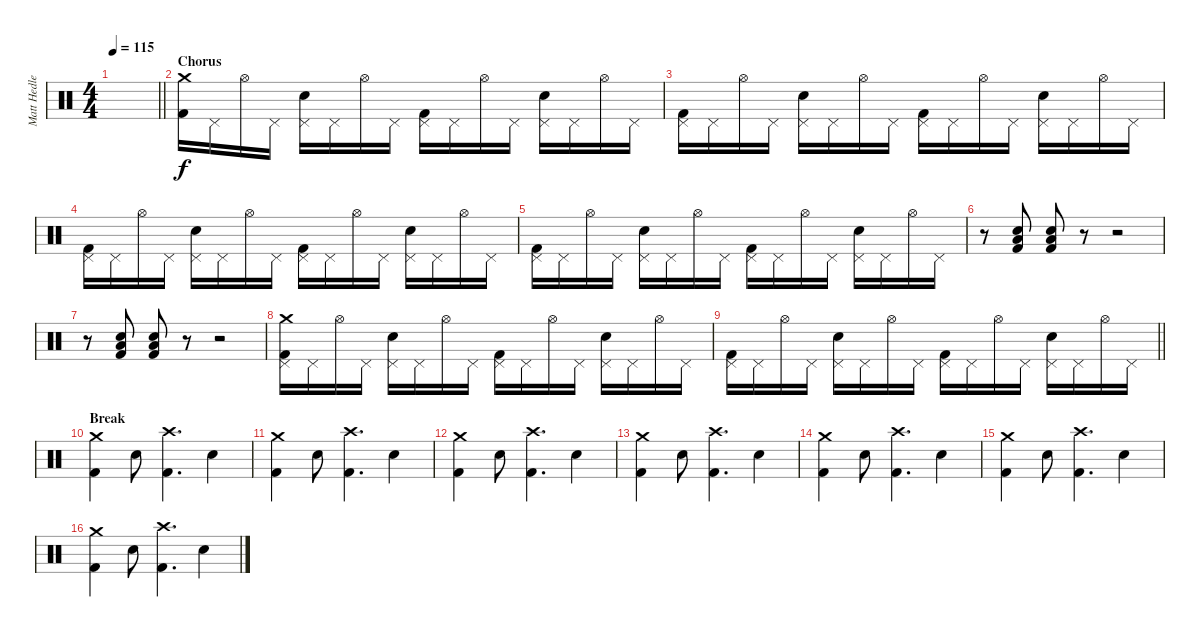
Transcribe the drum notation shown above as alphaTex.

\track ("Matt Hedlers" "Matt Hedle") {instrument percussion}
\staff {score}
\articulation defaults
\ts (4 4)
\tempo 115
\clef neutral
\barLineRight lightlight
\ks c
|
\section ("" "Chorus")
("Crash medium (hit)" "Kick (hit) 2").16 "Pedal Hi-Hat (hit)".16 "Hi-Hat (open)".16 "Pedal Hi-Hat (hit)".16 ("Pedal Hi-Hat (hit)" "Snare (hit) 2").16 "Pedal Hi-Hat (hit)".16 "Hi-Hat (open)".16 "Pedal Hi-Hat (hit)".16 ("Pedal Hi-Hat (hit)" "Kick (hit) 2").16 "Pedal Hi-Hat (hit)".16 "Hi-Hat (open)".16 "Pedal Hi-Hat (hit)".16 ("Pedal Hi-Hat (hit)" "Snare (hit) 2").16 "Pedal Hi-Hat (hit)".16 "Hi-Hat (open)".16 "Pedal Hi-Hat (hit)".16 |
("Pedal Hi-Hat (hit)" "Kick (hit) 2").16 "Pedal Hi-Hat (hit)".16 "Hi-Hat (open)".16 "Pedal Hi-Hat (hit)".16 ("Pedal Hi-Hat (hit)" "Snare (hit) 2").16 "Pedal Hi-Hat (hit)".16 "Hi-Hat (open)".16 "Pedal Hi-Hat (hit)".16 ("Pedal Hi-Hat (hit)" "Kick (hit) 2").16 "Pedal Hi-Hat (hit)".16 "Hi-Hat (open)".16 "Pedal Hi-Hat (hit)".16 ("Pedal Hi-Hat (hit)" "Snare (hit) 2").16 "Pedal Hi-Hat (hit)".16 "Hi-Hat (open)".16 "Pedal Hi-Hat (hit)".16 |
("Pedal Hi-Hat (hit)" "Kick (hit) 2").16 "Pedal Hi-Hat (hit)".16 "Hi-Hat (open)".16 "Pedal Hi-Hat (hit)".16 ("Pedal Hi-Hat (hit)" "Snare (hit) 2").16 "Pedal Hi-Hat (hit)".16 "Hi-Hat (open)".16 "Pedal Hi-Hat (hit)".16 ("Pedal Hi-Hat (hit)" "Kick (hit) 2").16 "Pedal Hi-Hat (hit)".16 "Hi-Hat (open)".16 "Pedal Hi-Hat (hit)".16 ("Pedal Hi-Hat (hit)" "Snare (hit) 2").16 "Pedal Hi-Hat (hit)".16 "Hi-Hat (open)".16 "Pedal Hi-Hat (hit)".16 |
("Pedal Hi-Hat (hit)" "Kick (hit) 2").16 "Pedal Hi-Hat (hit)".16 "Hi-Hat (open)".16 "Pedal Hi-Hat (hit)".16 ("Pedal Hi-Hat (hit)" "Snare (hit) 2").16 "Pedal Hi-Hat (hit)".16 "Hi-Hat (open)".16 "Pedal Hi-Hat (hit)".16 ("Pedal Hi-Hat (hit)" "Kick (hit) 2").16 "Pedal Hi-Hat (hit)".16 "Hi-Hat (open)".16 "Pedal Hi-Hat (hit)".16 ("Pedal Hi-Hat (hit)" "Snare (hit) 2").16 "Pedal Hi-Hat (hit)".16 "Hi-Hat (open)".16 "Pedal Hi-Hat (hit)".16 |
r.8 ("Low Tom (hit)" "Snare (hit) 2" "Kick (hit) 2").8 ("Low Tom (hit)" "Snare (hit) 2" "Kick (hit) 2").8 r.8 r.2 |
r.8 ("Low Tom (hit)" "Snare (hit) 2" "Kick (hit) 2").8 ("Low Tom (hit)" "Snare (hit) 2" "Kick (hit) 2").8 r.8 r.2 |
("Crash medium (hit)" "Pedal Hi-Hat (hit)" "Kick (hit) 2").16 "Pedal Hi-Hat (hit)".16 "Hi-Hat (open)".16 "Pedal Hi-Hat (hit)".16 ("Pedal Hi-Hat (hit)" "Snare (hit) 2").16 "Pedal Hi-Hat (hit)".16 "Hi-Hat (open)".16 "Pedal Hi-Hat (hit)".16 ("Pedal Hi-Hat (hit)" "Kick (hit) 2").16 "Pedal Hi-Hat (hit)".16 "Hi-Hat (open)".16 "Pedal Hi-Hat (hit)".16 ("Pedal Hi-Hat (hit)" "Snare (hit) 2").16 "Pedal Hi-Hat (hit)".16 "Hi-Hat (open)".16 "Pedal Hi-Hat (hit)".16 |
\barLineRight lightlight
("Pedal Hi-Hat (hit)" "Kick (hit) 2").16 "Pedal Hi-Hat (hit)".16 "Hi-Hat (open)".16 "Pedal Hi-Hat (hit)".16 ("Pedal Hi-Hat (hit)" "Snare (hit) 2").16 "Pedal Hi-Hat (hit)".16 "Hi-Hat (open)".16 "Pedal Hi-Hat (hit)".16 ("Pedal Hi-Hat (hit)" "Kick (hit) 2").16 "Pedal Hi-Hat (hit)".16 "Hi-Hat (open)".16 "Pedal Hi-Hat (hit)".16 ("Pedal Hi-Hat (hit)" "Snare (hit) 2").16 "Pedal Hi-Hat (hit)".16 "Hi-Hat (open)".16 "Pedal Hi-Hat (hit)".16 |
\section ("" "Break")
("Crash medium (hit)" "Kick (hit) 2").4 "Snare (hit) 2".8 ("Crash high (hit)" "Kick (hit) 2").4{d} "Snare (hit) 2".4 |
("Crash medium (hit)" "Kick (hit) 2").4 "Snare (hit) 2".8 ("Crash high (hit)" "Kick (hit) 2").4{d} "Snare (hit) 2".4 |
("Crash medium (hit)" "Kick (hit) 2").4 "Snare (hit) 2".8 ("Crash high (hit)" "Kick (hit) 2").4{d} "Snare (hit) 2".4 |
("Crash medium (hit)" "Kick (hit) 2").4 "Snare (hit) 2".8 ("Crash high (hit)" "Kick (hit) 2").4{d} "Snare (hit) 2".4 |
("Crash medium (hit)" "Kick (hit) 2").4 "Snare (hit) 2".8 ("Crash high (hit)" "Kick (hit) 2").4{d} "Snare (hit) 2".4 |
("Crash medium (hit)" "Kick (hit) 2").4 "Snare (hit) 2".8 ("Crash high (hit)" "Kick (hit) 2").4{d} "Snare (hit) 2".4 |
("Crash medium (hit)" "Kick (hit) 2").4 "Snare (hit) 2".8 ("Crash high (hit)" "Kick (hit) 2").4{d} "Snare (hit) 2".4
